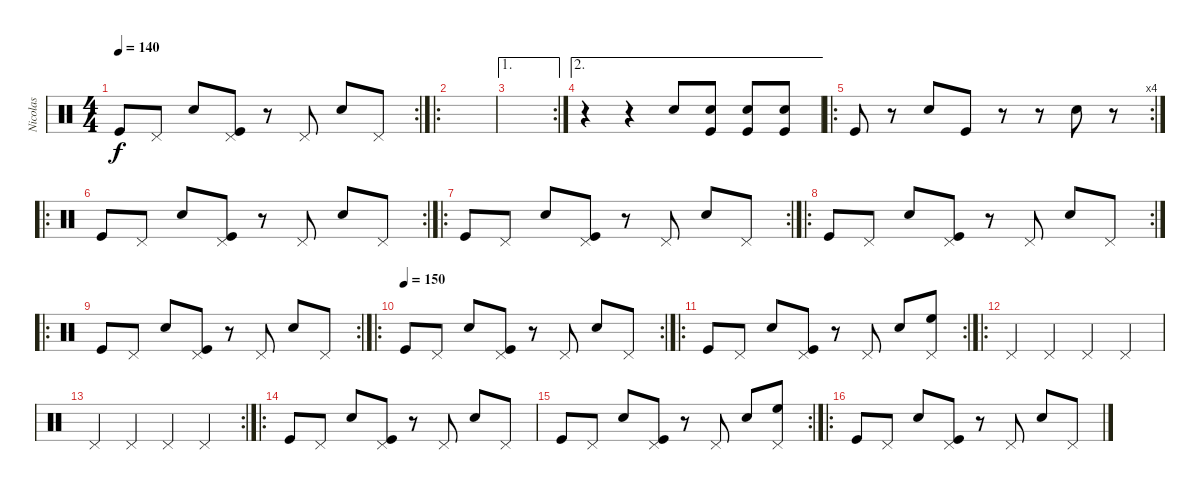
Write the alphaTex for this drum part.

\track ("Nicolas" "Nicolas") {instrument percussion}
\staff {score}
\articulation defaults
\rc 2
\ts (4 4)
\tempo 140
\clef neutral
\ks c "Kick (hit)".8{dy f} "Pedal Hi-Hat (hit)".8 "Electric Snare (hit)".8
("Pedal Hi-Hat (hit)" "Kick (hit)").8 r.8 "Pedal Hi-Hat (hit)".8 "Electric Snare (hit)".8 "Pedal Hi-Hat (hit)".8 |
\ro
|
\ae 1
\rc 2
|
\ae 2
r.4 r.4 "Electric Snare (hit)".8 ("Electric Snare (hit)" "Kick (hit)").8 ("Electric Snare (hit)" "Kick (hit)").8 ("Electric Snare (hit)" "Kick (hit)").8 |
\ro
\rc 4 "Kick (hit)".8
r.8 "Electric Snare (hit)".8 "Kick (hit)".8 r.8 r.8 "Electric Snare (hit)".8 r.8 |
\ro
\rc 2 "Kick (hit)".8 "Pedal Hi-Hat (hit)".8 "Electric Snare (hit)".8
("Pedal Hi-Hat (hit)" "Kick (hit)").8 r.8 "Pedal Hi-Hat (hit)".8 "Electric Snare (hit)".8 "Pedal Hi-Hat (hit)".8 |
\ro
\rc 2 "Kick (hit)".8 "Pedal Hi-Hat (hit)".8 "Electric Snare (hit)".8
("Pedal Hi-Hat (hit)" "Kick (hit)").8 r.8 "Pedal Hi-Hat (hit)".8 "Electric Snare (hit)".8 "Pedal Hi-Hat (hit)".8 |
\ro
\rc 2 "Kick (hit)".8 "Pedal Hi-Hat (hit)".8 "Electric Snare (hit)".8
("Pedal Hi-Hat (hit)" "Kick (hit)").8 r.8 "Pedal Hi-Hat (hit)".8 "Electric Snare (hit)".8 "Pedal Hi-Hat (hit)".8 |
\ro
\rc 2 "Kick (hit)".8 "Pedal Hi-Hat (hit)".8 "Electric Snare (hit)".8
("Pedal Hi-Hat (hit)" "Kick (hit)").8 r.8 "Pedal Hi-Hat (hit)".8 "Electric Snare (hit)".8 "Pedal Hi-Hat (hit)".8 |
\ro
\rc 2
\tempo (150)
"Kick (hit)".8 "Pedal Hi-Hat (hit)".8 "Electric Snare (hit)".8 ("Pedal Hi-Hat (hit)" "Kick (hit)").8 r.8 "Pedal Hi-Hat (hit)".8 "Electric Snare (hit)".8 "Pedal Hi-Hat (hit)".8 |
\ro
\rc 2 "Kick (hit)".8 "Pedal Hi-Hat (hit)".8 "Electric Snare (hit)".8
("Pedal Hi-Hat (hit)" "Kick (hit)").8 r.8 "Pedal Hi-Hat (hit)".8 "Electric Snare (hit)".8 ("Pedal Hi-Hat (hit)" "High Floor Tom (hit)").8 |
\ro "Pedal Hi-Hat (hit)".4 "Pedal Hi-Hat (hit)".4 "Pedal Hi-Hat (hit)".4 "Pedal Hi-Hat (hit)".4
|
\rc 2 "Pedal Hi-Hat (hit)".4 "Pedal Hi-Hat (hit)".4 "Pedal Hi-Hat (hit)".4 "Pedal Hi-Hat (hit)".4
|
\ro "Kick (hit)".8 "Pedal Hi-Hat (hit)".8 "Electric Snare (hit)".8
("Pedal Hi-Hat (hit)" "Kick (hit)").8 r.8 "Pedal Hi-Hat (hit)".8 "Electric Snare (hit)".8 "Pedal Hi-Hat (hit)".8 |
\rc 2 "Kick (hit)".8 "Pedal Hi-Hat (hit)".8 "Electric Snare (hit)".8
("Pedal Hi-Hat (hit)" "Kick (hit)").8 r.8 "Pedal Hi-Hat (hit)".8 "Electric Snare (hit)".8 ("Pedal Hi-Hat (hit)" "High Floor Tom (hit)").8 |
\ro "Kick (hit)".8 "Pedal Hi-Hat (hit)".8 "Electric Snare (hit)".8
("Pedal Hi-Hat (hit)" "Kick (hit)").8 r.8 "Pedal Hi-Hat (hit)".8 "Electric Snare (hit)".8 "Pedal Hi-Hat (hit)".8
